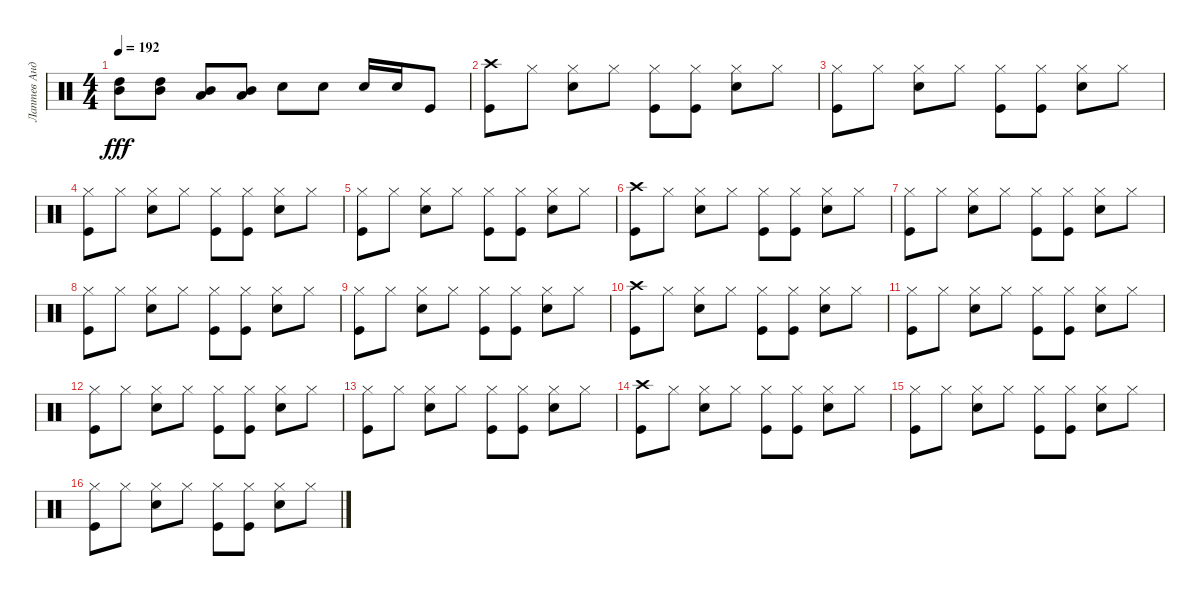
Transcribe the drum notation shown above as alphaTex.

\track ("Лаптев Андрей" "Лаптев Анд") {instrument percussion}
\staff {score}
\articulation defaults
\ts (4 4)
\tempo 192
\clef neutral
\ks c
("Mid Tom (hit)" "High Tom (hit)").8{dy fff} ("Mid Tom (hit)" "High Tom (hit)").8 ("Low Tom (hit)" "Mid Tom (hit)").8 ("Low Tom (hit)" "Mid Tom (hit)").8 "Electric Snare (hit)".8 "Electric Snare (hit)".8 "Electric Snare (hit)".16 "Electric Snare (hit)".16 "Kick (hit)".8 |
("Crash high (hit)" "Kick (hit)").8 "Hi-Hat (closed)".8 ("Electric Snare (hit)" "Hi-Hat (closed)").8 "Hi-Hat (closed)".8 ("Hi-Hat (closed)" "Kick (hit)").8 ("Kick (hit)" "Hi-Hat (closed)").8 ("Hi-Hat (closed)" "Electric Snare (hit)").8 "Hi-Hat (closed)".8 |
("Hi-Hat (closed)" "Kick (hit)").8 "Hi-Hat (closed)".8 ("Electric Snare (hit)" "Hi-Hat (closed)").8 "Hi-Hat (closed)".8 ("Kick (hit)" "Hi-Hat (closed)").8 ("Kick (hit)" "Hi-Hat (closed)").8 ("Hi-Hat (closed)" "Electric Snare (hit)").8 "Hi-Hat (closed)".8 |
("Hi-Hat (closed)" "Kick (hit)").8 "Hi-Hat (closed)".8 ("Electric Snare (hit)" "Hi-Hat (closed)").8 "Hi-Hat (closed)".8 ("Kick (hit)" "Hi-Hat (closed)").8 ("Kick (hit)" "Hi-Hat (closed)").8 ("Hi-Hat (closed)" "Electric Snare (hit)").8 "Hi-Hat (closed)".8 |
("Hi-Hat (closed)" "Kick (hit)").8 "Hi-Hat (closed)".8 ("Electric Snare (hit)" "Hi-Hat (closed)").8 "Hi-Hat (closed)".8 ("Kick (hit)" "Hi-Hat (closed)").8 ("Kick (hit)" "Hi-Hat (closed)").8 ("Hi-Hat (closed)" "Electric Snare (hit)").8 "Hi-Hat (closed)".8 |
("Crash high (hit)" "Kick (hit)").8 "Hi-Hat (closed)".8 ("Electric Snare (hit)" "Hi-Hat (closed)").8 "Hi-Hat (closed)".8 ("Kick (hit)" "Hi-Hat (closed)").8 ("Kick (hit)" "Hi-Hat (closed)").8 ("Hi-Hat (closed)" "Electric Snare (hit)").8 "Hi-Hat (closed)".8 |
("Hi-Hat (closed)" "Kick (hit)").8 "Hi-Hat (closed)".8 ("Electric Snare (hit)" "Hi-Hat (closed)").8 "Hi-Hat (closed)".8 ("Kick (hit)" "Hi-Hat (closed)").8 ("Kick (hit)" "Hi-Hat (closed)").8 ("Hi-Hat (closed)" "Electric Snare (hit)").8 "Hi-Hat (closed)".8 |
("Hi-Hat (closed)" "Kick (hit)").8 "Hi-Hat (closed)".8 ("Electric Snare (hit)" "Hi-Hat (closed)").8 "Hi-Hat (closed)".8 ("Kick (hit)" "Hi-Hat (closed)").8 ("Kick (hit)" "Hi-Hat (closed)").8 ("Hi-Hat (closed)" "Electric Snare (hit)").8 "Hi-Hat (closed)".8 |
("Hi-Hat (closed)" "Kick (hit)").8 "Hi-Hat (closed)".8 ("Electric Snare (hit)" "Hi-Hat (closed)").8 "Hi-Hat (closed)".8 ("Kick (hit)" "Hi-Hat (closed)").8 ("Kick (hit)" "Hi-Hat (closed)").8 ("Hi-Hat (closed)" "Electric Snare (hit)").8 "Hi-Hat (closed)".8 |
("Crash high (hit)" "Kick (hit)").8 "Hi-Hat (closed)".8 ("Electric Snare (hit)" "Hi-Hat (closed)").8 "Hi-Hat (closed)".8 ("Kick (hit)" "Hi-Hat (closed)").8 ("Kick (hit)" "Hi-Hat (closed)").8 ("Hi-Hat (closed)" "Electric Snare (hit)").8 "Hi-Hat (closed)".8 |
("Hi-Hat (closed)" "Kick (hit)").8 "Hi-Hat (closed)".8 ("Electric Snare (hit)" "Hi-Hat (closed)").8 "Hi-Hat (closed)".8 ("Kick (hit)" "Hi-Hat (closed)").8 ("Kick (hit)" "Hi-Hat (closed)").8 ("Hi-Hat (closed)" "Electric Snare (hit)").8 "Hi-Hat (closed)".8 |
("Hi-Hat (closed)" "Kick (hit)").8 "Hi-Hat (closed)".8 ("Electric Snare (hit)" "Hi-Hat (closed)").8 "Hi-Hat (closed)".8 ("Kick (hit)" "Hi-Hat (closed)").8 ("Kick (hit)" "Hi-Hat (closed)").8 ("Hi-Hat (closed)" "Electric Snare (hit)").8 "Hi-Hat (closed)".8 |
("Hi-Hat (closed)" "Kick (hit)").8 "Hi-Hat (closed)".8 ("Electric Snare (hit)" "Hi-Hat (closed)").8 "Hi-Hat (closed)".8 ("Kick (hit)" "Hi-Hat (closed)").8 ("Kick (hit)" "Hi-Hat (closed)").8 ("Hi-Hat (closed)" "Electric Snare (hit)").8 "Hi-Hat (closed)".8 |
("Crash high (hit)" "Kick (hit)").8 "Hi-Hat (closed)".8 ("Electric Snare (hit)" "Hi-Hat (closed)").8 "Hi-Hat (closed)".8 ("Kick (hit)" "Hi-Hat (closed)").8 ("Kick (hit)" "Hi-Hat (closed)").8 ("Hi-Hat (closed)" "Electric Snare (hit)").8 "Hi-Hat (closed)".8 |
("Hi-Hat (closed)" "Kick (hit)").8 "Hi-Hat (closed)".8 ("Electric Snare (hit)" "Hi-Hat (closed)").8 "Hi-Hat (closed)".8 ("Kick (hit)" "Hi-Hat (closed)").8 ("Kick (hit)" "Hi-Hat (closed)").8 ("Hi-Hat (closed)" "Electric Snare (hit)").8 "Hi-Hat (closed)".8 |
("Hi-Hat (closed)" "Kick (hit)").8 "Hi-Hat (closed)".8 ("Electric Snare (hit)" "Hi-Hat (closed)").8 "Hi-Hat (closed)".8 ("Kick (hit)" "Hi-Hat (closed)").8 ("Kick (hit)" "Hi-Hat (closed)").8 ("Hi-Hat (closed)" "Electric Snare (hit)").8 "Hi-Hat (closed)".8
